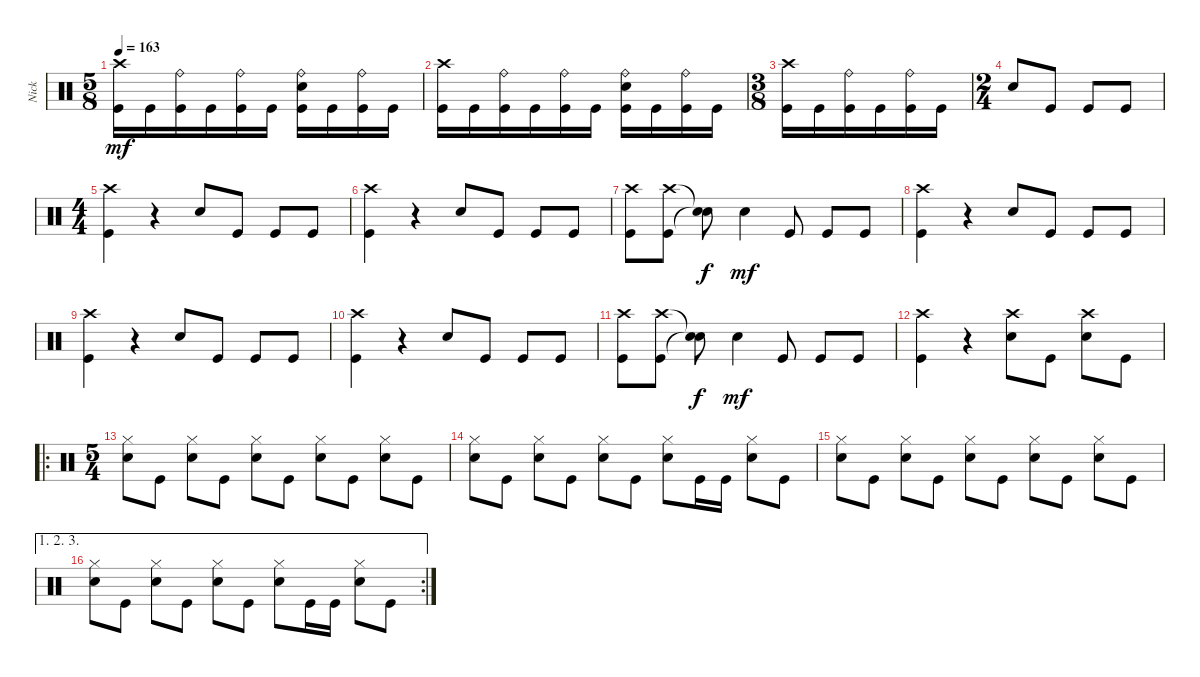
\track ("Nick" "Nick") {instrument percussion}
\staff {score}
\articulation defaults
\ts (5 8)
\tempo 163
\clef neutral
\ks c
("Kick (hit)" "Crash high (hit)").16{dy mf} "Kick (hit)".16 ("Kick (hit)" "Ride (bell)").16 "Kick (hit)".16 ("Kick (hit)" "Ride (bell)").16 "Kick (hit)".16 ("Kick (hit)" "Ride (bell)" "Snare (hit) 2").16 "Kick (hit)".16 ("Kick (hit)" "Ride (bell)").16 "Kick (hit)".16 |
("Kick (hit)" "Crash high (hit)").16 "Kick (hit)".16 ("Kick (hit)" "Ride (bell)").16 "Kick (hit)".16 ("Kick (hit)" "Ride (bell)").16 "Kick (hit)".16 ("Kick (hit)" "Ride (bell)" "Snare (hit) 2").16 "Kick (hit)".16 ("Kick (hit)" "Ride (bell)").16 "Kick (hit)".16 |
\ts (3 8)
("Kick (hit)" "Crash high (hit)").16 "Kick (hit)".16 ("Kick (hit)" "Ride (bell)").16 "Kick (hit)".16 ("Kick (hit)" "Ride (bell)").16 "Kick (hit)".16 |
\ts (2 4)
"Snare (hit) 2".8 "Kick (hit)".8 "Kick (hit)".8 "Kick (hit)".8 |
\ts (4 4)
("Kick (hit)" "Crash high (hit)").4 r.4 "Snare (hit) 2".8 "Kick (hit)".8 "Kick (hit)".8 "Kick (hit)".8 |
("Kick (hit)" "Crash high (hit)").4 r.4 "Snare (hit) 2".8 "Kick (hit)".8 "Kick (hit)".8 "Kick (hit)".8 |
("Kick (hit)" "Crash high (hit)").8 ("Kick (hit)" "Crash high (hit)").8 ("Snare (hit)"{t} "Snare (hit)"{t}).8{dy f} "Snare (hit) 2".4{dy mf} "Kick (hit)".8 "Kick (hit)".8 "Kick (hit)".8 |
("Kick (hit)" "Crash high (hit)").4 r.4 "Snare (hit) 2".8 "Kick (hit)".8 "Kick (hit)".8 "Kick (hit)".8 |
("Kick (hit)" "Crash high (hit)").4 r.4 "Snare (hit) 2".8 "Kick (hit)".8 "Kick (hit)".8 "Kick (hit)".8 |
("Kick (hit)" "Crash high (hit)").4 r.4 "Snare (hit) 2".8 "Kick (hit)".8 "Kick (hit)".8 "Kick (hit)".8 |
("Kick (hit)" "Crash high (hit)").8 ("Kick (hit)" "Crash high (hit)").8 ("Snare (hit)"{t} "Snare (hit)"{t}).8{dy f} "Snare (hit) 2".4{dy mf} "Kick (hit)".8 "Kick (hit)".8 "Kick (hit)".8 |
("Kick (hit)" "Crash high (hit)").4 r.4 ("Snare (hit) 2" "Crash high (hit)").8 "Kick (hit)".8 ("Snare (hit) 2" "Crash high (hit)").8 "Kick (hit)".8 |
\ro
\ts (5 4)
("Hi-Hat (closed)" "Snare (hit) 2").8 "Kick (hit)".8 ("Hi-Hat (closed)" "Snare (hit) 2").8 "Kick (hit)".8 ("Hi-Hat (closed)" "Snare (hit) 2").8 "Kick (hit)".8 ("Hi-Hat (closed)" "Snare (hit) 2").8 "Kick (hit)".8 ("Hi-Hat (closed)" "Snare (hit) 2").8 "Kick (hit)".8 |
("Hi-Hat (closed)" "Snare (hit) 2").8 "Kick (hit)".8 ("Hi-Hat (closed)" "Snare (hit) 2").8 "Kick (hit)".8 ("Hi-Hat (closed)" "Snare (hit) 2").8 "Kick (hit)".8 ("Hi-Hat (closed)" "Snare (hit) 2").8 "Kick (hit)".16 "Kick (hit)".16 ("Hi-Hat (closed)" "Snare (hit) 2").8 "Kick (hit)".8 |
("Hi-Hat (closed)" "Snare (hit) 2").8 "Kick (hit)".8 ("Hi-Hat (closed)" "Snare (hit) 2").8 "Kick (hit)".8 ("Hi-Hat (closed)" "Snare (hit) 2").8 "Kick (hit)".8 ("Hi-Hat (closed)" "Snare (hit) 2").8 "Kick (hit)".8 ("Hi-Hat (closed)" "Snare (hit) 2").8 "Kick (hit)".8 |
\ae (1 2 3)
\rc 2
("Hi-Hat (closed)" "Snare (hit) 2").8 "Kick (hit)".8 ("Hi-Hat (closed)" "Snare (hit) 2").8 "Kick (hit)".8 ("Hi-Hat (closed)" "Snare (hit) 2").8 "Kick (hit)".8 ("Hi-Hat (closed)" "Snare (hit) 2").8 "Kick (hit)".16 "Kick (hit)".16 ("Hi-Hat (closed)" "Snare (hit) 2").8 "Kick (hit)".8
